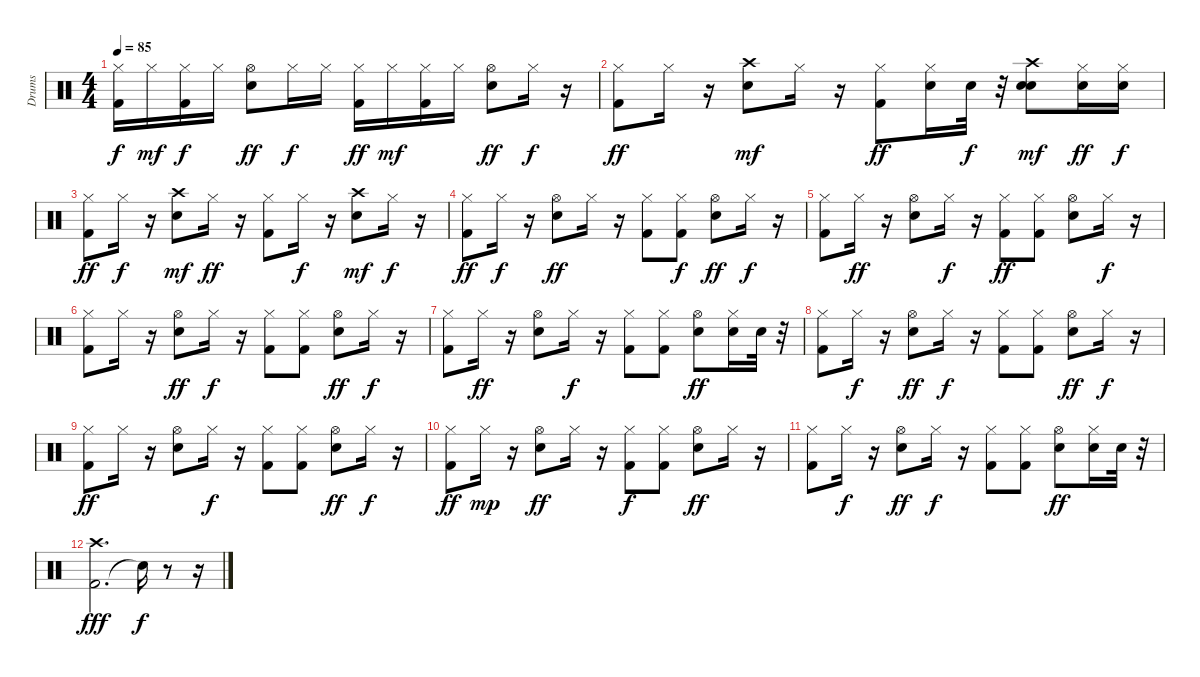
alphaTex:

\track ("Drums" "Drums") {instrument percussion}
\staff {score}
\articulation defaults
\ts (4 4)
\tempo 85
\clef neutral
\ks c
("Kick (hit) 2" "Hi-Hat (closed)").16{dy f} "Hi-Hat (closed)".16{dy mf} ("Kick (hit) 2" "Hi-Hat (closed)").16{dy f} "Hi-Hat (closed)".16 ("Electric Snare (hit)" "Hi-Hat (open)").8{dy ff} "Hi-Hat (closed)".16{dy f} "Hi-Hat (closed)".16 ("Kick (hit) 2" "Hi-Hat (closed)").16{dy ff} "Hi-Hat (closed)".16{dy mf} ("Kick (hit) 2" "Hi-Hat (closed)").16 "Hi-Hat (closed)".16 ("Electric Snare (hit)" "Hi-Hat (open)").8{dy ff} "Hi-Hat (closed)".16{dy f} r.16 |
("Kick (hit) 2" "Hi-Hat (closed)").8{dy ff} "Hi-Hat (closed)".16 r.16 ("Electric Snare (hit)" "Crash high (hit)").8{dy mf} "Hi-Hat (closed)".16 r.16 ("Kick (hit) 2" "Hi-Hat (closed)").8{dy ff} ("Hi-Hat (closed)" "Electric Snare (hit)").16 "Electric Snare (hit)".32{dy f} r.32 ("Electric Snare (hit)" "Crash high (hit)" "Electric Snare (hit)").8{dy mf} ("Hi-Hat (closed)" "Electric Snare (hit)").16{dy ff} ("Hi-Hat (closed)" "Electric Snare (hit)").16{dy f} |
("Kick (hit) 2" "Hi-Hat (closed)").8{dy ff} "Hi-Hat (closed)".16{dy f} r.16 ("Electric Snare (hit)" "Crash high (hit)").8{dy mf} "Hi-Hat (closed)".16{dy ff} r.16 ("Kick (hit) 2" "Hi-Hat (closed)").8 "Hi-Hat (closed)".16{dy f} r.16 ("Electric Snare (hit)" "Crash high (hit)").8{dy mf} "Hi-Hat (closed)".16{dy f} r.16 |
("Kick (hit) 2" "Hi-Hat (closed)").8{dy ff} "Hi-Hat (closed)".16{dy f} r.16 ("Electric Snare (hit)" "Hi-Hat (open)").8{dy ff} "Hi-Hat (closed)".16 r.16 ("Kick (hit) 2" "Hi-Hat (closed)").8 ("Kick (hit) 2" "Hi-Hat (closed)").8{dy f} ("Electric Snare (hit)" "Hi-Hat (open)").8{dy ff} "Hi-Hat (closed)".16{dy f} r.16 |
("Kick (hit) 2" "Hi-Hat (closed)").8 "Hi-Hat (closed)".16{dy ff} r.16 ("Electric Snare (hit)" "Hi-Hat (open)").8 "Hi-Hat (closed)".16{dy f} r.16 ("Kick (hit) 2" "Hi-Hat (closed)").8{dy ff} ("Kick (hit) 2" "Hi-Hat (closed)").8 ("Electric Snare (hit)" "Hi-Hat (open)").8 "Hi-Hat (closed)".16{dy f} r.16 |
("Kick (hit) 2" "Hi-Hat (closed)").8 "Hi-Hat (closed)".16 r.16 ("Electric Snare (hit)" "Hi-Hat (open)").8{dy ff} "Hi-Hat (closed)".16{dy f} r.16 ("Kick (hit) 2" "Hi-Hat (closed)").8 ("Kick (hit) 2" "Hi-Hat (closed)").8 ("Electric Snare (hit)" "Hi-Hat (open)").8{dy ff} "Hi-Hat (closed)".16{dy f} r.16 |
("Kick (hit) 2" "Hi-Hat (closed)").8 "Hi-Hat (closed)".16{dy ff} r.16 ("Electric Snare (hit)" "Hi-Hat (open)").8 "Hi-Hat (closed)".16{dy f} r.16 ("Kick (hit) 2" "Hi-Hat (closed)").8 ("Kick (hit) 2" "Hi-Hat (closed)").8 ("Electric Snare (hit)" "Hi-Hat (open)").8{dy ff} ("Hi-Hat (closed)" "Electric Snare (hit)").16 "Electric Snare (hit)".32 r.32 |
("Kick (hit) 2" "Hi-Hat (closed)").8 "Hi-Hat (closed)".16{dy f} r.16 ("Electric Snare (hit)" "Hi-Hat (open)").8{dy ff} "Hi-Hat (closed)".16{dy f} r.16 ("Kick (hit) 2" "Hi-Hat (closed)").8 ("Kick (hit) 2" "Hi-Hat (closed)").8 ("Electric Snare (hit)" "Hi-Hat (open)").8{dy ff} "Hi-Hat (closed)".16{dy f} r.16 |
("Kick (hit) 2" "Hi-Hat (closed)").8{dy ff} "Hi-Hat (closed)".16 r.16 ("Electric Snare (hit)" "Hi-Hat (open)").8 "Hi-Hat (closed)".16{dy f} r.16 ("Kick (hit) 2" "Hi-Hat (closed)").8 ("Kick (hit) 2" "Hi-Hat (closed)").8 ("Electric Snare (hit)" "Hi-Hat (open)").8{dy ff} "Hi-Hat (closed)".16{dy f} r.16 |
("Kick (hit) 2" "Hi-Hat (closed)").8{dy ff} "Hi-Hat (closed)".16{dy mp} r.16 ("Electric Snare (hit)" "Hi-Hat (open)").8{dy ff} "Hi-Hat (closed)".16 r.16 ("Kick (hit) 2" "Hi-Hat (closed)").8{dy f} ("Kick (hit) 2" "Hi-Hat (closed)").8 ("Electric Snare (hit)" "Hi-Hat (open)").8{dy ff} "Hi-Hat (closed)".16 r.16 |
("Kick (hit) 2" "Hi-Hat (closed)").8 "Hi-Hat (closed)".16{dy f} r.16 ("Electric Snare (hit)" "Hi-Hat (open)").8{dy ff} "Hi-Hat (closed)".16{dy f} r.16 ("Kick (hit) 2" "Hi-Hat (closed)").8 ("Kick (hit) 2" "Hi-Hat (closed)").8 ("Electric Snare (hit)" "Hi-Hat (open)").8{dy ff} ("Hi-Hat (closed)" "Electric Snare (hit)").16 "Electric Snare (hit)".32 r.32 |
("Kick (hit) 2" "Crash high (hit)").2{d dy fff} "Snare (hit)"{t}.16{dy f} r.8 r.16
